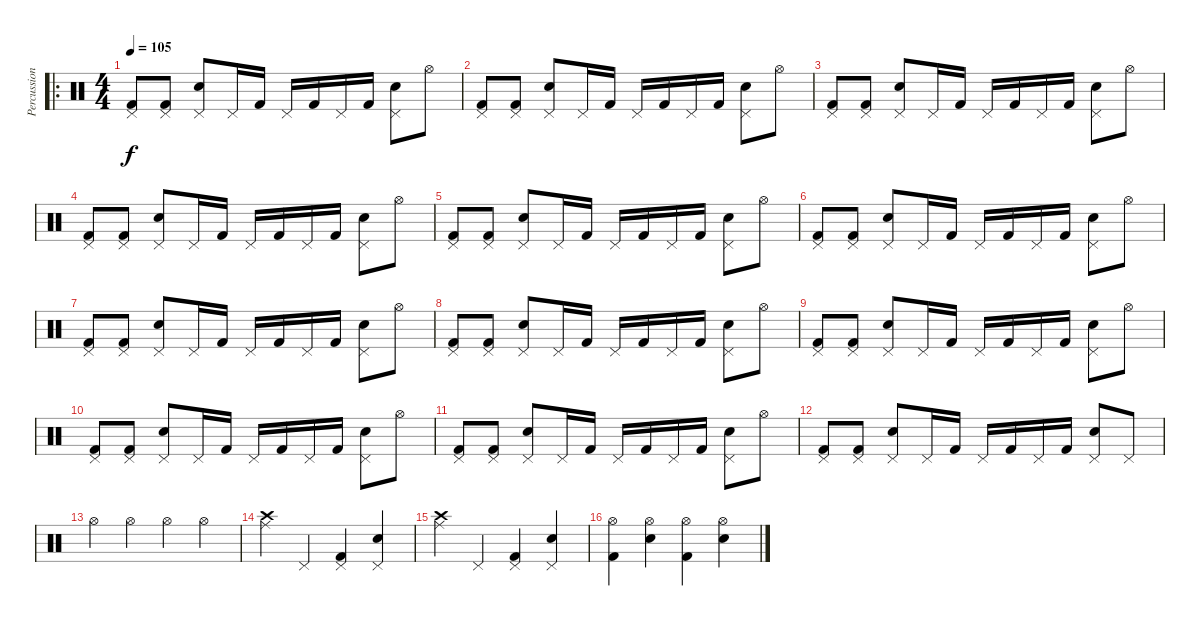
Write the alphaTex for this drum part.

\track ("Percussion" "Percussion") {instrument percussion}
\staff {score}
\articulation defaults
\ro
\ts (4 4)
\tempo 105
\clef neutral
\ks c
("Pedal Hi-Hat (hit)" "Kick (hit) 2").8{dy f} ("Pedal Hi-Hat (hit)" "Kick (hit) 2").8 ("Pedal Hi-Hat (hit)" "Electric Snare (hit)").8 "Pedal Hi-Hat (hit)".16 "Kick (hit) 2".16 "Pedal Hi-Hat (hit)".16 "Kick (hit) 2".16 "Pedal Hi-Hat (hit)".16 "Kick (hit) 2".16 ("Pedal Hi-Hat (hit)" "Electric Snare (hit)").8 "Hi-Hat (open)".8 |
("Pedal Hi-Hat (hit)" "Kick (hit) 2").8 ("Pedal Hi-Hat (hit)" "Kick (hit) 2").8 ("Pedal Hi-Hat (hit)" "Electric Snare (hit)").8 "Pedal Hi-Hat (hit)".16 "Kick (hit) 2".16 "Pedal Hi-Hat (hit)".16 "Kick (hit) 2".16 "Pedal Hi-Hat (hit)".16 "Kick (hit) 2".16 ("Pedal Hi-Hat (hit)" "Electric Snare (hit)").8 "Hi-Hat (open)".8 |
("Pedal Hi-Hat (hit)" "Kick (hit) 2").8 ("Pedal Hi-Hat (hit)" "Kick (hit) 2").8 ("Pedal Hi-Hat (hit)" "Electric Snare (hit)").8 "Pedal Hi-Hat (hit)".16 "Kick (hit) 2".16 "Pedal Hi-Hat (hit)".16 "Kick (hit) 2".16 "Pedal Hi-Hat (hit)".16 "Kick (hit) 2".16 ("Pedal Hi-Hat (hit)" "Electric Snare (hit)").8 "Hi-Hat (open)".8 |
("Pedal Hi-Hat (hit)" "Kick (hit) 2").8 ("Pedal Hi-Hat (hit)" "Kick (hit) 2").8 ("Pedal Hi-Hat (hit)" "Electric Snare (hit)").8 "Pedal Hi-Hat (hit)".16 "Kick (hit) 2".16 "Pedal Hi-Hat (hit)".16 "Kick (hit) 2".16 "Pedal Hi-Hat (hit)".16 "Kick (hit) 2".16 ("Pedal Hi-Hat (hit)" "Electric Snare (hit)").8 "Hi-Hat (open)".8 |
("Pedal Hi-Hat (hit)" "Kick (hit) 2").8 ("Pedal Hi-Hat (hit)" "Kick (hit) 2").8 ("Pedal Hi-Hat (hit)" "Electric Snare (hit)").8 "Pedal Hi-Hat (hit)".16 "Kick (hit) 2".16 "Pedal Hi-Hat (hit)".16 "Kick (hit) 2".16 "Pedal Hi-Hat (hit)".16 "Kick (hit) 2".16 ("Pedal Hi-Hat (hit)" "Electric Snare (hit)").8 "Hi-Hat (open)".8 |
("Pedal Hi-Hat (hit)" "Kick (hit) 2").8 ("Pedal Hi-Hat (hit)" "Kick (hit) 2").8 ("Pedal Hi-Hat (hit)" "Electric Snare (hit)").8 "Pedal Hi-Hat (hit)".16 "Kick (hit) 2".16 "Pedal Hi-Hat (hit)".16 "Kick (hit) 2".16 "Pedal Hi-Hat (hit)".16 "Kick (hit) 2".16 ("Pedal Hi-Hat (hit)" "Electric Snare (hit)").8 "Hi-Hat (open)".8 |
("Pedal Hi-Hat (hit)" "Kick (hit) 2").8 ("Pedal Hi-Hat (hit)" "Kick (hit) 2").8 ("Pedal Hi-Hat (hit)" "Electric Snare (hit)").8 "Pedal Hi-Hat (hit)".16 "Kick (hit) 2".16 "Pedal Hi-Hat (hit)".16 "Kick (hit) 2".16 "Pedal Hi-Hat (hit)".16 "Kick (hit) 2".16 ("Pedal Hi-Hat (hit)" "Electric Snare (hit)").8 "Hi-Hat (open)".8 |
("Pedal Hi-Hat (hit)" "Kick (hit) 2").8 ("Pedal Hi-Hat (hit)" "Kick (hit) 2").8 ("Pedal Hi-Hat (hit)" "Electric Snare (hit)").8 "Pedal Hi-Hat (hit)".16 "Kick (hit) 2".16 "Pedal Hi-Hat (hit)".16 "Kick (hit) 2".16 "Pedal Hi-Hat (hit)".16 "Kick (hit) 2".16 ("Pedal Hi-Hat (hit)" "Electric Snare (hit)").8 "Hi-Hat (open)".8 |
("Pedal Hi-Hat (hit)" "Kick (hit) 2").8 ("Pedal Hi-Hat (hit)" "Kick (hit) 2").8 ("Pedal Hi-Hat (hit)" "Electric Snare (hit)").8 "Pedal Hi-Hat (hit)".16 "Kick (hit) 2".16 "Pedal Hi-Hat (hit)".16 "Kick (hit) 2".16 "Pedal Hi-Hat (hit)".16 "Kick (hit) 2".16 ("Pedal Hi-Hat (hit)" "Electric Snare (hit)").8 "Hi-Hat (open)".8 |
("Pedal Hi-Hat (hit)" "Kick (hit) 2").8 ("Pedal Hi-Hat (hit)" "Kick (hit) 2").8 ("Pedal Hi-Hat (hit)" "Electric Snare (hit)").8 "Pedal Hi-Hat (hit)".16 "Kick (hit) 2".16 "Pedal Hi-Hat (hit)".16 "Kick (hit) 2".16 "Pedal Hi-Hat (hit)".16 "Kick (hit) 2".16 ("Pedal Hi-Hat (hit)" "Electric Snare (hit)").8 "Hi-Hat (open)".8 |
("Pedal Hi-Hat (hit)" "Kick (hit) 2").8 ("Pedal Hi-Hat (hit)" "Kick (hit) 2").8 ("Pedal Hi-Hat (hit)" "Electric Snare (hit)").8 "Pedal Hi-Hat (hit)".16 "Kick (hit) 2".16 "Pedal Hi-Hat (hit)".16 "Kick (hit) 2".16 "Pedal Hi-Hat (hit)".16 "Kick (hit) 2".16 ("Pedal Hi-Hat (hit)" "Electric Snare (hit)").8 "Hi-Hat (open)".8 |
("Pedal Hi-Hat (hit)" "Kick (hit) 2").8 ("Pedal Hi-Hat (hit)" "Kick (hit) 2").8 ("Pedal Hi-Hat (hit)" "Electric Snare (hit)").8 "Pedal Hi-Hat (hit)".16 "Kick (hit) 2".16 "Pedal Hi-Hat (hit)".16 "Kick (hit) 2".16 "Pedal Hi-Hat (hit)".16 "Kick (hit) 2".16 ("Pedal Hi-Hat (hit)" "Electric Snare (hit)").8 "Pedal Hi-Hat (hit)".8 |
"Hi-Hat (open)".4 "Hi-Hat (open)".4 "Hi-Hat (open)".4 "Hi-Hat (open)".4 |
("Crash high (hit)" "Ride (middle)").4 "Pedal Hi-Hat (hit)".4 ("Pedal Hi-Hat (hit)" "Kick (hit) 2").4 ("Pedal Hi-Hat (hit)" "Electric Snare (hit)").4 |
("Crash high (hit)" "Ride (middle)").4 "Pedal Hi-Hat (hit)".4 ("Pedal Hi-Hat (hit)" "Kick (hit) 2").4 ("Pedal Hi-Hat (hit)" "Electric Snare (hit)").4 |
("Hi-Hat (open)" "Kick (hit) 2").4 ("Hi-Hat (open)" "Electric Snare (hit)").4 ("Hi-Hat (open)" "Kick (hit) 2").4 ("Hi-Hat (open)" "Electric Snare (hit)").4
